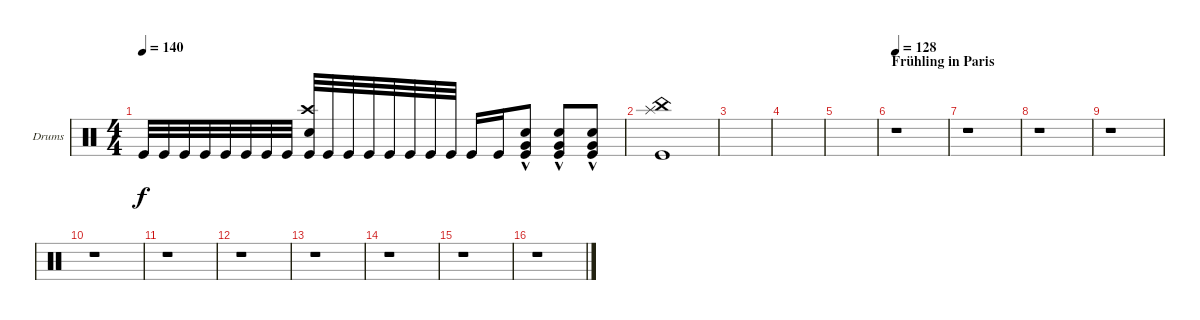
\bracketExtendMode groupsimilarinstruments
\firstSystemTrackNameOrientation horizontal
\otherSystemsTrackNameOrientation horizontal
\track ("Drumkit (Christoph)" "Drums") {instrument percussion}
\staff {score}
\articulation defaults
\ts (4 4)
\tempo 140
\clef neutral
\ks c "Kick (hit)".32{dy f} "Kick (hit)".32 "Kick (hit)".32 "Kick (hit)".32 "Kick (hit)".32 "Kick (hit)".32 "Kick (hit)".32 "Kick (hit)".32
("Crash high (hit)" "Kick (hit)" "Snare (hit) 2").32 "Kick (hit)".32 "Kick (hit)".32 "Kick (hit)".32 "Kick (hit)".32 "Kick (hit)".32 "Kick (hit)".32 "Kick (hit)".32 "Kick (hit)".16 "Kick (hit)".16 ("Kick (hit)" "Snare (hit) 2"{hac} "Very Low Tom (hit)"{hac}).8 ("Kick (hit)" "Snare (hit) 2"{hac} "Very Low Tom (hit)"{hac}).8 ("Kick (hit)" "Snare (hit) 2"{hac} "Very Low Tom (hit)"{hac}).8 |
("Splash (hit)" "Kick (hit)" "China (hit)").1 |
|
|
|
\section ("" "Frühling in Paris")
\tempo 128
r.1 |
r.1 |
r.1 |
r.1 |
r.1 |
r.1 |
r.1 |
r.1 |
r.1 |
r.1 |
r.1
